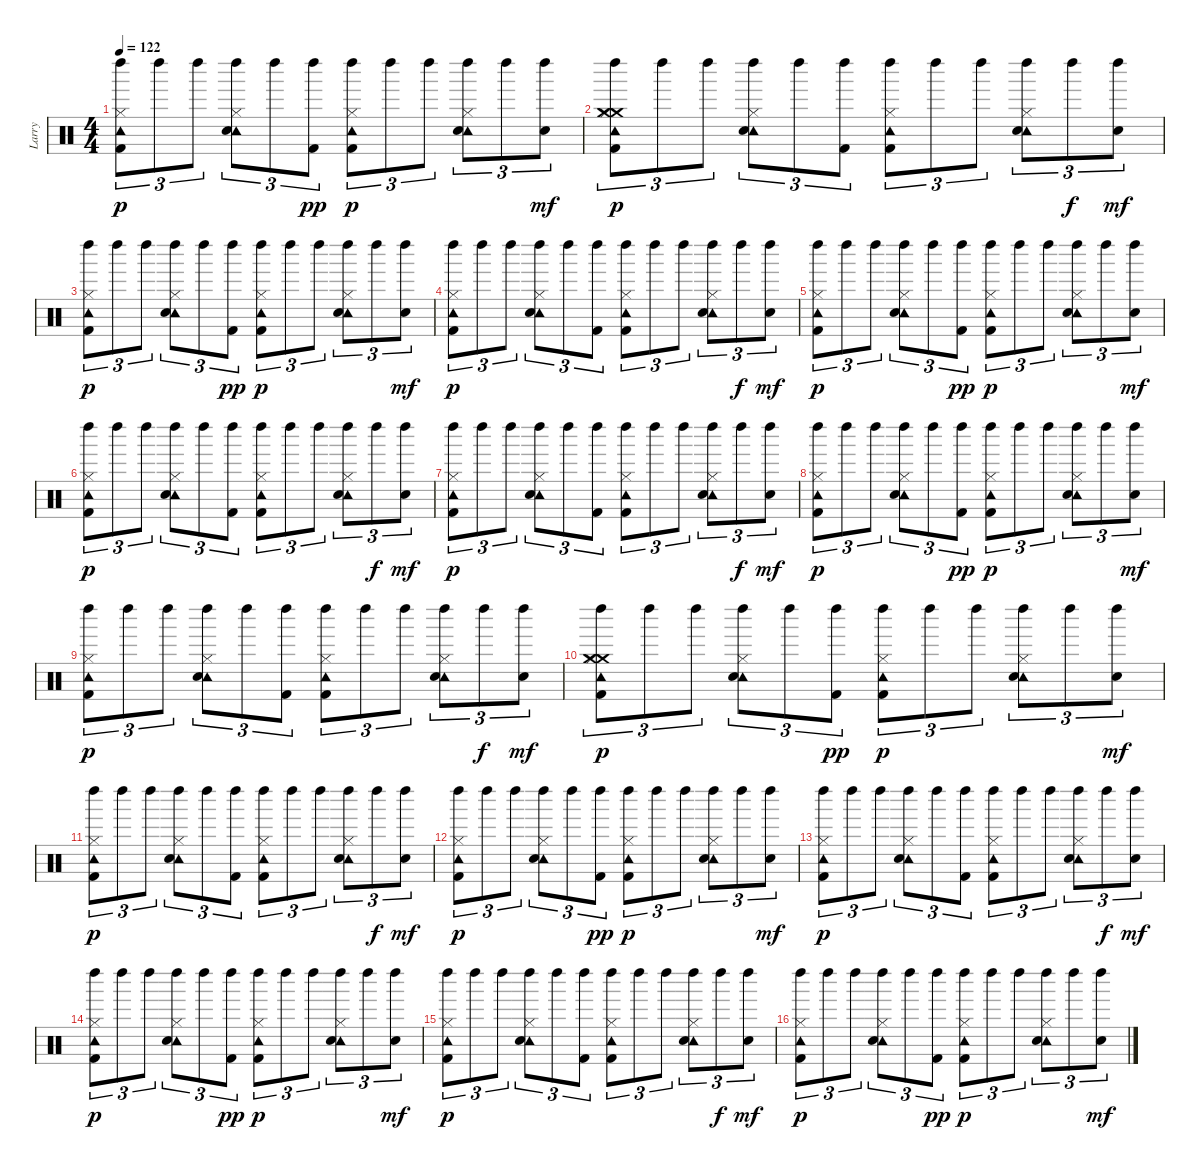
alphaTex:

\track ("Larry" "Larry") {instrument percussion}
\staff {score}
\articulation defaults
\ts (4 4)
\tempo 122
\clef neutral
\ks c
("Left Maraca (hit)" "Tambourine (hit)" "Hi-Hat (closed)" "Kick (hit) 2").8{tu (3 2) dy p} "Left Maraca (hit)".8{tu (3 2)} "Left Maraca (hit)".8{tu (3 2)} ("Left Maraca (hit)" "Tambourine (hit)" "Hi-Hat (closed)" "Snare (hit) 2").8{tu (3 2)} "Left Maraca (hit)".8{tu (3 2)} ("Left Maraca (hit)" "Kick (hit) 2").8{tu (3 2) dy pp} ("Left Maraca (hit)" "Tambourine (hit)" "Hi-Hat (closed)" "Kick (hit) 2").8{tu (3 2) dy p} "Left Maraca (hit)".8{tu (3 2)} "Left Maraca (hit)".8{tu (3 2)} ("Left Maraca (hit)" "Tambourine (hit)" "Hi-Hat (closed)" "Snare (hit) 2").8{tu (3 2)} "Left Maraca (hit)".8{tu (3 2)} ("Left Maraca (hit)" "Snare (hit) 2").8{tu (3 2) dy mf} |
("Left Maraca (hit)" "Crash medium (hit)" "Tambourine (hit)" "Hi-Hat (closed)" "Crash medium (hit)" "Kick (hit) 2").8{tu (3 2) dy p} "Left Maraca (hit)".8{tu (3 2)} "Left Maraca (hit)".8{tu (3 2)} ("Left Maraca (hit)" "Tambourine (hit)" "Hi-Hat (closed)" "Snare (hit) 2").8{tu (3 2)} "Left Maraca (hit)".8{tu (3 2)} ("Left Maraca (hit)" "Kick (hit) 2").8{tu (3 2)} ("Left Maraca (hit)" "Tambourine (hit)" "Hi-Hat (closed)" "Kick (hit) 2").8{tu (3 2)} "Left Maraca (hit)".8{tu (3 2)} "Left Maraca (hit)".8{tu (3 2)} ("Left Maraca (hit)" "Tambourine (hit)" "Hi-Hat (closed)" "Snare (hit) 2").8{tu (3 2)} "Left Maraca (hit)".8{tu (3 2) dy f} ("Left Maraca (hit)" "Snare (hit) 2").8{tu (3 2) dy mf} |
("Left Maraca (hit)" "Tambourine (hit)" "Hi-Hat (closed)" "Kick (hit) 2").8{tu (3 2) dy p} "Left Maraca (hit)".8{tu (3 2)} "Left Maraca (hit)".8{tu (3 2)} ("Left Maraca (hit)" "Tambourine (hit)" "Hi-Hat (closed)" "Snare (hit) 2").8{tu (3 2)} "Left Maraca (hit)".8{tu (3 2)} ("Left Maraca (hit)" "Kick (hit) 2").8{tu (3 2) dy pp} ("Left Maraca (hit)" "Tambourine (hit)" "Hi-Hat (closed)" "Kick (hit) 2").8{tu (3 2) dy p} "Left Maraca (hit)".8{tu (3 2)} "Left Maraca (hit)".8{tu (3 2)} ("Left Maraca (hit)" "Tambourine (hit)" "Hi-Hat (closed)" "Snare (hit) 2").8{tu (3 2)} "Left Maraca (hit)".8{tu (3 2)} ("Left Maraca (hit)" "Snare (hit) 2").8{tu (3 2) dy mf} |
("Left Maraca (hit)" "Tambourine (hit)" "Hi-Hat (closed)" "Kick (hit) 2").8{tu (3 2) dy p} "Left Maraca (hit)".8{tu (3 2)} "Left Maraca (hit)".8{tu (3 2)} ("Left Maraca (hit)" "Tambourine (hit)" "Hi-Hat (closed)" "Snare (hit) 2").8{tu (3 2)} "Left Maraca (hit)".8{tu (3 2)} ("Left Maraca (hit)" "Kick (hit) 2").8{tu (3 2)} ("Left Maraca (hit)" "Tambourine (hit)" "Hi-Hat (closed)" "Kick (hit) 2").8{tu (3 2)} "Left Maraca (hit)".8{tu (3 2)} "Left Maraca (hit)".8{tu (3 2)} ("Left Maraca (hit)" "Tambourine (hit)" "Hi-Hat (closed)" "Snare (hit) 2").8{tu (3 2)} "Left Maraca (hit)".8{tu (3 2) dy f} ("Left Maraca (hit)" "Snare (hit) 2").8{tu (3 2) dy mf} |
("Left Maraca (hit)" "Tambourine (hit)" "Hi-Hat (closed)" "Kick (hit) 2").8{tu (3 2) dy p} "Left Maraca (hit)".8{tu (3 2)} "Left Maraca (hit)".8{tu (3 2)} ("Left Maraca (hit)" "Tambourine (hit)" "Hi-Hat (closed)" "Snare (hit) 2").8{tu (3 2)} "Left Maraca (hit)".8{tu (3 2)} ("Left Maraca (hit)" "Kick (hit) 2").8{tu (3 2) dy pp} ("Left Maraca (hit)" "Tambourine (hit)" "Hi-Hat (closed)" "Kick (hit) 2").8{tu (3 2) dy p} "Left Maraca (hit)".8{tu (3 2)} "Left Maraca (hit)".8{tu (3 2)} ("Left Maraca (hit)" "Tambourine (hit)" "Hi-Hat (closed)" "Snare (hit) 2").8{tu (3 2)} "Left Maraca (hit)".8{tu (3 2)} ("Left Maraca (hit)" "Snare (hit) 2").8{tu (3 2) dy mf} |
("Left Maraca (hit)" "Tambourine (hit)" "Hi-Hat (closed)" "Kick (hit) 2").8{tu (3 2) dy p} "Left Maraca (hit)".8{tu (3 2)} "Left Maraca (hit)".8{tu (3 2)} ("Left Maraca (hit)" "Tambourine (hit)" "Hi-Hat (closed)" "Snare (hit) 2").8{tu (3 2)} "Left Maraca (hit)".8{tu (3 2)} ("Left Maraca (hit)" "Kick (hit) 2").8{tu (3 2)} ("Left Maraca (hit)" "Tambourine (hit)" "Hi-Hat (closed)" "Kick (hit) 2").8{tu (3 2)} "Left Maraca (hit)".8{tu (3 2)} "Left Maraca (hit)".8{tu (3 2)} ("Left Maraca (hit)" "Tambourine (hit)" "Hi-Hat (closed)" "Snare (hit) 2").8{tu (3 2)} "Left Maraca (hit)".8{tu (3 2) dy f} ("Left Maraca (hit)" "Snare (hit) 2").8{tu (3 2) dy mf} |
("Left Maraca (hit)" "Tambourine (hit)" "Hi-Hat (closed)" "Kick (hit) 2").8{tu (3 2) dy p volume 16} "Left Maraca (hit)".8{tu (3 2)} "Left Maraca (hit)".8{tu (3 2)} ("Left Maraca (hit)" "Tambourine (hit)" "Hi-Hat (closed)" "Snare (hit) 2").8{tu (3 2)} "Left Maraca (hit)".8{tu (3 2)} ("Left Maraca (hit)" "Kick (hit) 2").8{tu (3 2)} ("Left Maraca (hit)" "Tambourine (hit)" "Hi-Hat (closed)" "Kick (hit) 2").8{tu (3 2)} "Left Maraca (hit)".8{tu (3 2)} "Left Maraca (hit)".8{tu (3 2)} ("Left Maraca (hit)" "Tambourine (hit)" "Hi-Hat (closed)" "Snare (hit) 2").8{tu (3 2)} "Left Maraca (hit)".8{tu (3 2) dy f} ("Left Maraca (hit)" "Snare (hit) 2").8{tu (3 2) dy mf} |
("Left Maraca (hit)" "Tambourine (hit)" "Hi-Hat (closed)" "Kick (hit) 2").8{tu (3 2) dy p} "Left Maraca (hit)".8{tu (3 2)} "Left Maraca (hit)".8{tu (3 2)} ("Left Maraca (hit)" "Tambourine (hit)" "Hi-Hat (closed)" "Snare (hit) 2").8{tu (3 2)} "Left Maraca (hit)".8{tu (3 2)} ("Left Maraca (hit)" "Kick (hit) 2").8{tu (3 2) dy pp} ("Left Maraca (hit)" "Tambourine (hit)" "Hi-Hat (closed)" "Kick (hit) 2").8{tu (3 2) dy p} "Left Maraca (hit)".8{tu (3 2)} "Left Maraca (hit)".8{tu (3 2)} ("Left Maraca (hit)" "Tambourine (hit)" "Hi-Hat (closed)" "Snare (hit) 2").8{tu (3 2)} "Left Maraca (hit)".8{tu (3 2)} ("Left Maraca (hit)" "Snare (hit) 2").8{tu (3 2) dy mf} |
("Left Maraca (hit)" "Tambourine (hit)" "Hi-Hat (closed)" "Kick (hit) 2").8{tu (3 2) dy p} "Left Maraca (hit)".8{tu (3 2)} "Left Maraca (hit)".8{tu (3 2)} ("Left Maraca (hit)" "Tambourine (hit)" "Hi-Hat (closed)" "Snare (hit) 2").8{tu (3 2)} "Left Maraca (hit)".8{tu (3 2)} ("Left Maraca (hit)" "Kick (hit) 2").8{tu (3 2)} ("Left Maraca (hit)" "Tambourine (hit)" "Hi-Hat (closed)" "Kick (hit) 2").8{tu (3 2)} "Left Maraca (hit)".8{tu (3 2)} "Left Maraca (hit)".8{tu (3 2)} ("Left Maraca (hit)" "Tambourine (hit)" "Hi-Hat (closed)" "Snare (hit) 2").8{tu (3 2)} "Left Maraca (hit)".8{tu (3 2) dy f} ("Left Maraca (hit)" "Snare (hit) 2").8{tu (3 2) dy mf} |
("Left Maraca (hit)" "Crash medium (hit)" "Tambourine (hit)" "Hi-Hat (closed)" "Crash medium (hit)" "Kick (hit) 2").8{tu (3 2) dy p} "Left Maraca (hit)".8{tu (3 2)} "Left Maraca (hit)".8{tu (3 2)} ("Left Maraca (hit)" "Tambourine (hit)" "Hi-Hat (closed)" "Snare (hit) 2").8{tu (3 2)} "Left Maraca (hit)".8{tu (3 2)} ("Left Maraca (hit)" "Kick (hit) 2").8{tu (3 2) dy pp} ("Left Maraca (hit)" "Tambourine (hit)" "Hi-Hat (closed)" "Kick (hit) 2").8{tu (3 2) dy p} "Left Maraca (hit)".8{tu (3 2)} "Left Maraca (hit)".8{tu (3 2)} ("Left Maraca (hit)" "Tambourine (hit)" "Hi-Hat (closed)" "Snare (hit) 2").8{tu (3 2)} "Left Maraca (hit)".8{tu (3 2)} ("Left Maraca (hit)" "Snare (hit) 2").8{tu (3 2) dy mf} |
("Left Maraca (hit)" "Tambourine (hit)" "Hi-Hat (closed)" "Kick (hit) 2").8{tu (3 2) dy p} "Left Maraca (hit)".8{tu (3 2)} "Left Maraca (hit)".8{tu (3 2)} ("Left Maraca (hit)" "Tambourine (hit)" "Hi-Hat (closed)" "Snare (hit) 2").8{tu (3 2)} "Left Maraca (hit)".8{tu (3 2)} ("Left Maraca (hit)" "Kick (hit) 2").8{tu (3 2)} ("Left Maraca (hit)" "Tambourine (hit)" "Hi-Hat (closed)" "Kick (hit) 2").8{tu (3 2)} "Left Maraca (hit)".8{tu (3 2)} "Left Maraca (hit)".8{tu (3 2)} ("Left Maraca (hit)" "Tambourine (hit)" "Hi-Hat (closed)" "Snare (hit) 2").8{tu (3 2)} "Left Maraca (hit)".8{tu (3 2) dy f} ("Left Maraca (hit)" "Snare (hit) 2").8{tu (3 2) dy mf} |
("Left Maraca (hit)" "Tambourine (hit)" "Hi-Hat (closed)" "Kick (hit) 2").8{tu (3 2) dy p} "Left Maraca (hit)".8{tu (3 2)} "Left Maraca (hit)".8{tu (3 2)} ("Left Maraca (hit)" "Tambourine (hit)" "Hi-Hat (closed)" "Snare (hit) 2").8{tu (3 2)} "Left Maraca (hit)".8{tu (3 2)} ("Left Maraca (hit)" "Kick (hit) 2").8{tu (3 2) dy pp} ("Left Maraca (hit)" "Tambourine (hit)" "Hi-Hat (closed)" "Kick (hit) 2").8{tu (3 2) dy p} "Left Maraca (hit)".8{tu (3 2)} "Left Maraca (hit)".8{tu (3 2)} ("Left Maraca (hit)" "Tambourine (hit)" "Hi-Hat (closed)" "Snare (hit) 2").8{tu (3 2)} "Left Maraca (hit)".8{tu (3 2)} ("Left Maraca (hit)" "Snare (hit) 2").8{tu (3 2) dy mf} |
("Left Maraca (hit)" "Tambourine (hit)" "Hi-Hat (closed)" "Kick (hit) 2").8{tu (3 2) dy p} "Left Maraca (hit)".8{tu (3 2)} "Left Maraca (hit)".8{tu (3 2)} ("Left Maraca (hit)" "Tambourine (hit)" "Hi-Hat (closed)" "Snare (hit) 2").8{tu (3 2)} "Left Maraca (hit)".8{tu (3 2)} ("Left Maraca (hit)" "Kick (hit) 2").8{tu (3 2)} ("Left Maraca (hit)" "Tambourine (hit)" "Hi-Hat (closed)" "Kick (hit) 2").8{tu (3 2)} "Left Maraca (hit)".8{tu (3 2)} "Left Maraca (hit)".8{tu (3 2)} ("Left Maraca (hit)" "Tambourine (hit)" "Hi-Hat (closed)" "Snare (hit) 2").8{tu (3 2)} "Left Maraca (hit)".8{tu (3 2) dy f} ("Left Maraca (hit)" "Snare (hit) 2").8{tu (3 2) dy mf} |
("Left Maraca (hit)" "Tambourine (hit)" "Hi-Hat (closed)" "Kick (hit) 2").8{tu (3 2) dy p} "Left Maraca (hit)".8{tu (3 2)} "Left Maraca (hit)".8{tu (3 2)} ("Left Maraca (hit)" "Tambourine (hit)" "Hi-Hat (closed)" "Snare (hit) 2").8{tu (3 2)} "Left Maraca (hit)".8{tu (3 2)} ("Left Maraca (hit)" "Kick (hit) 2").8{tu (3 2) dy pp} ("Left Maraca (hit)" "Tambourine (hit)" "Hi-Hat (closed)" "Kick (hit) 2").8{tu (3 2) dy p} "Left Maraca (hit)".8{tu (3 2)} "Left Maraca (hit)".8{tu (3 2)} ("Left Maraca (hit)" "Tambourine (hit)" "Hi-Hat (closed)" "Snare (hit) 2").8{tu (3 2)} "Left Maraca (hit)".8{tu (3 2)} ("Left Maraca (hit)" "Snare (hit) 2").8{tu (3 2) dy mf} |
("Left Maraca (hit)" "Tambourine (hit)" "Hi-Hat (closed)" "Kick (hit) 2").8{tu (3 2) dy p} "Left Maraca (hit)".8{tu (3 2)} "Left Maraca (hit)".8{tu (3 2)} ("Left Maraca (hit)" "Tambourine (hit)" "Hi-Hat (closed)" "Snare (hit) 2").8{tu (3 2)} "Left Maraca (hit)".8{tu (3 2)} ("Left Maraca (hit)" "Kick (hit) 2").8{tu (3 2)} ("Left Maraca (hit)" "Tambourine (hit)" "Hi-Hat (closed)" "Kick (hit) 2").8{tu (3 2)} "Left Maraca (hit)".8{tu (3 2)} "Left Maraca (hit)".8{tu (3 2)} ("Left Maraca (hit)" "Tambourine (hit)" "Hi-Hat (closed)" "Snare (hit) 2").8{tu (3 2)} "Left Maraca (hit)".8{tu (3 2) dy f} ("Left Maraca (hit)" "Snare (hit) 2").8{tu (3 2) dy mf} |
("Left Maraca (hit)" "Tambourine (hit)" "Hi-Hat (closed)" "Kick (hit) 2").8{tu (3 2) dy p} "Left Maraca (hit)".8{tu (3 2)} "Left Maraca (hit)".8{tu (3 2)} ("Left Maraca (hit)" "Tambourine (hit)" "Hi-Hat (closed)" "Snare (hit) 2").8{tu (3 2)} "Left Maraca (hit)".8{tu (3 2)} ("Left Maraca (hit)" "Kick (hit) 2").8{tu (3 2) dy pp} ("Left Maraca (hit)" "Tambourine (hit)" "Hi-Hat (closed)" "Kick (hit) 2").8{tu (3 2) dy p} "Left Maraca (hit)".8{tu (3 2)} "Left Maraca (hit)".8{tu (3 2)} ("Left Maraca (hit)" "Tambourine (hit)" "Hi-Hat (closed)" "Snare (hit) 2").8{tu (3 2)} "Left Maraca (hit)".8{tu (3 2)} ("Left Maraca (hit)" "Snare (hit) 2").8{tu (3 2) dy mf}
